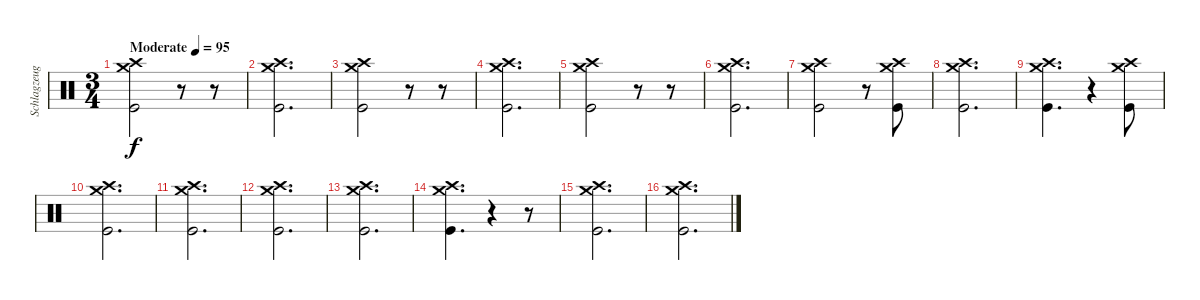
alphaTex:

\track ("Schlagzeug" "Schlagzeug") {instrument percussion}
\staff {score}
\articulation defaults
\ts (3 4)
\tempo (95 "Moderate")
\clef neutral
\ks c
("Crash medium (hit)" "Crash high (hit)" "Kick (hit)").2{dy f} r.8 r.8 |
("Crash medium (hit)" "Crash high (hit)" "Kick (hit)").2{d} |
("Crash medium (hit)" "Crash high (hit)" "Kick (hit)").2 r.8 r.8 |
("Crash medium (hit)" "Crash high (hit)" "Kick (hit)").2{d} |
("Crash medium (hit)" "Crash high (hit)" "Kick (hit)").2 r.8 r.8 |
("Crash medium (hit)" "Crash high (hit)" "Kick (hit)").2{d} |
("Crash medium (hit)" "Crash high (hit)" "Kick (hit)").2 r.8 ("Crash medium (hit)" "Crash high (hit)" "Kick (hit)").8 |
("Crash medium (hit)" "Crash high (hit)" "Kick (hit)").2{d} |
("Crash medium (hit)" "Crash high (hit)" "Kick (hit)").4{d} r.4 ("Crash medium (hit)" "Crash high (hit)" "Kick (hit)").8 |
("Crash medium (hit)" "Crash high (hit)" "Kick (hit)").2{d} |
("Crash medium (hit)" "Crash high (hit)" "Kick (hit)").2{d} |
("Crash medium (hit)" "Crash high (hit)" "Kick (hit)").2{d} |
("Crash medium (hit)" "Crash high (hit)" "Kick (hit)").2{d} |
("Crash medium (hit)" "Crash high (hit)" "Kick (hit)").4{d} r.4 r.8 |
("Crash medium (hit)" "Crash high (hit)" "Kick (hit)").2{d} |
("Crash medium (hit)" "Crash high (hit)" "Kick (hit)").2{d}
